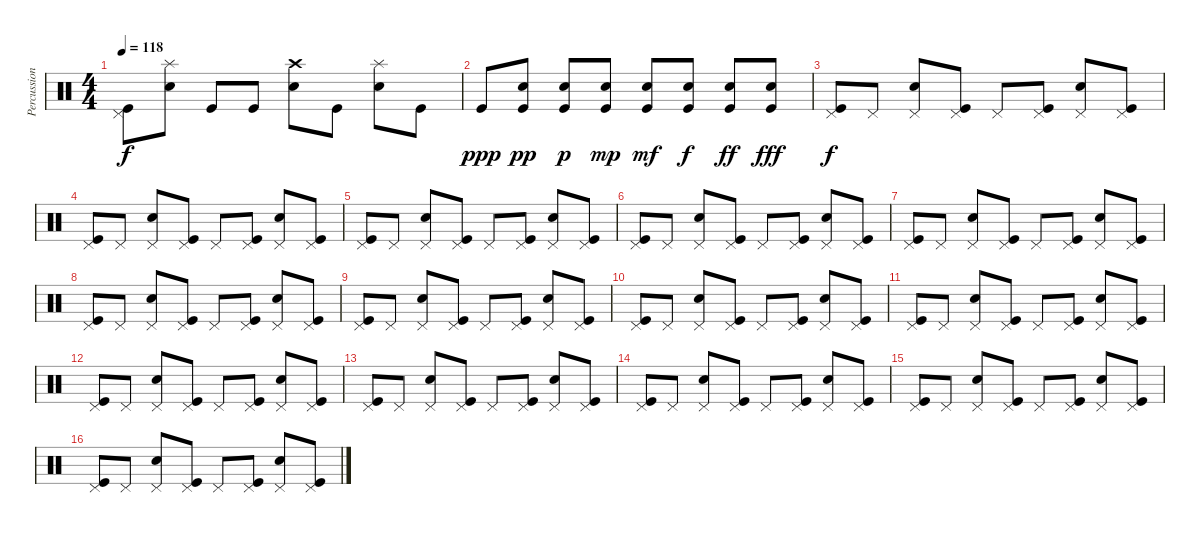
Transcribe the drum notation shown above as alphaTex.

\track ("Percussions" "Percussion") {instrument percussion}
\staff {score}
\articulation defaults
\ts (4 4)
\tempo 118
\clef neutral
\ks c
("Pedal Hi-Hat (hit)" "Kick (hit)").8{dy f} ("Splash (hit)" "Snare (hit) 2").8 "Kick (hit)".8 "Kick (hit)".8 ("Crash high (hit)" "Snare (hit) 2").8 "Kick (hit)".8 ("Splash (hit)" "Snare (hit) 2").8 "Kick (hit)".8 |
"Kick (hit)".8{dy ppp} ("Snare (hit) 2" "Kick (hit)").8{dy pp} ("Snare (hit) 2" "Kick (hit)").8{dy p} ("Snare (hit) 2" "Kick (hit)").8{dy mp} ("Snare (hit) 2" "Kick (hit)").8{dy mf} ("Snare (hit) 2" "Kick (hit)").8{dy f} ("Snare (hit) 2" "Kick (hit)").8{dy ff} ("Snare (hit) 2" "Kick (hit)").8{dy fff} |
("Pedal Hi-Hat (hit)" "Kick (hit)").8{dy f} "Pedal Hi-Hat (hit)".8 ("Pedal Hi-Hat (hit)" "Snare (hit) 2").8 ("Pedal Hi-Hat (hit)" "Kick (hit)").8 "Pedal Hi-Hat (hit)".8 ("Pedal Hi-Hat (hit)" "Kick (hit)").8 ("Pedal Hi-Hat (hit)" "Snare (hit) 2").8 ("Pedal Hi-Hat (hit)" "Kick (hit)").8 |
("Pedal Hi-Hat (hit)" "Kick (hit)").8 "Pedal Hi-Hat (hit)".8 ("Pedal Hi-Hat (hit)" "Snare (hit) 2").8 ("Pedal Hi-Hat (hit)" "Kick (hit)").8 "Pedal Hi-Hat (hit)".8 ("Pedal Hi-Hat (hit)" "Kick (hit)").8 ("Pedal Hi-Hat (hit)" "Snare (hit) 2").8 ("Pedal Hi-Hat (hit)" "Kick (hit)").8 |
("Pedal Hi-Hat (hit)" "Kick (hit)").8 "Pedal Hi-Hat (hit)".8 ("Pedal Hi-Hat (hit)" "Snare (hit) 2").8 ("Pedal Hi-Hat (hit)" "Kick (hit)").8 "Pedal Hi-Hat (hit)".8 ("Pedal Hi-Hat (hit)" "Kick (hit)").8 ("Pedal Hi-Hat (hit)" "Snare (hit) 2").8 ("Pedal Hi-Hat (hit)" "Kick (hit)").8 |
("Pedal Hi-Hat (hit)" "Kick (hit)").8 "Pedal Hi-Hat (hit)".8 ("Pedal Hi-Hat (hit)" "Snare (hit) 2").8 ("Pedal Hi-Hat (hit)" "Kick (hit)").8 "Pedal Hi-Hat (hit)".8 ("Pedal Hi-Hat (hit)" "Kick (hit)").8 ("Pedal Hi-Hat (hit)" "Snare (hit) 2").8 ("Pedal Hi-Hat (hit)" "Kick (hit)").8 |
("Pedal Hi-Hat (hit)" "Kick (hit)").8 "Pedal Hi-Hat (hit)".8 ("Pedal Hi-Hat (hit)" "Snare (hit) 2").8 ("Pedal Hi-Hat (hit)" "Kick (hit)").8 "Pedal Hi-Hat (hit)".8 ("Pedal Hi-Hat (hit)" "Kick (hit)").8 ("Pedal Hi-Hat (hit)" "Snare (hit) 2").8 ("Pedal Hi-Hat (hit)" "Kick (hit)").8 |
("Pedal Hi-Hat (hit)" "Kick (hit)").8 "Pedal Hi-Hat (hit)".8 ("Pedal Hi-Hat (hit)" "Snare (hit) 2").8 ("Pedal Hi-Hat (hit)" "Kick (hit)").8 "Pedal Hi-Hat (hit)".8 ("Pedal Hi-Hat (hit)" "Kick (hit)").8 ("Pedal Hi-Hat (hit)" "Snare (hit) 2").8 ("Pedal Hi-Hat (hit)" "Kick (hit)").8 |
("Pedal Hi-Hat (hit)" "Kick (hit)").8 "Pedal Hi-Hat (hit)".8 ("Pedal Hi-Hat (hit)" "Snare (hit) 2").8 ("Pedal Hi-Hat (hit)" "Kick (hit)").8 "Pedal Hi-Hat (hit)".8 ("Pedal Hi-Hat (hit)" "Kick (hit)").8 ("Pedal Hi-Hat (hit)" "Snare (hit) 2").8 ("Pedal Hi-Hat (hit)" "Kick (hit)").8 |
("Pedal Hi-Hat (hit)" "Kick (hit)").8 "Pedal Hi-Hat (hit)".8 ("Pedal Hi-Hat (hit)" "Snare (hit) 2").8 ("Pedal Hi-Hat (hit)" "Kick (hit)").8 "Pedal Hi-Hat (hit)".8 ("Pedal Hi-Hat (hit)" "Kick (hit)").8 ("Pedal Hi-Hat (hit)" "Snare (hit) 2").8 ("Pedal Hi-Hat (hit)" "Kick (hit)").8 |
("Pedal Hi-Hat (hit)" "Kick (hit)").8 "Pedal Hi-Hat (hit)".8 ("Pedal Hi-Hat (hit)" "Snare (hit) 2").8 ("Pedal Hi-Hat (hit)" "Kick (hit)").8 "Pedal Hi-Hat (hit)".8 ("Pedal Hi-Hat (hit)" "Kick (hit)").8 ("Pedal Hi-Hat (hit)" "Snare (hit) 2").8 ("Pedal Hi-Hat (hit)" "Kick (hit)").8 |
("Pedal Hi-Hat (hit)" "Kick (hit)").8 "Pedal Hi-Hat (hit)".8 ("Pedal Hi-Hat (hit)" "Snare (hit) 2").8 ("Pedal Hi-Hat (hit)" "Kick (hit)").8 "Pedal Hi-Hat (hit)".8 ("Pedal Hi-Hat (hit)" "Kick (hit)").8 ("Pedal Hi-Hat (hit)" "Snare (hit) 2").8 ("Pedal Hi-Hat (hit)" "Kick (hit)").8 |
("Pedal Hi-Hat (hit)" "Kick (hit)").8 "Pedal Hi-Hat (hit)".8 ("Pedal Hi-Hat (hit)" "Snare (hit) 2").8 ("Pedal Hi-Hat (hit)" "Kick (hit)").8 "Pedal Hi-Hat (hit)".8 ("Pedal Hi-Hat (hit)" "Kick (hit)").8 ("Pedal Hi-Hat (hit)" "Snare (hit) 2").8 ("Pedal Hi-Hat (hit)" "Kick (hit)").8 |
("Pedal Hi-Hat (hit)" "Kick (hit)").8 "Pedal Hi-Hat (hit)".8 ("Pedal Hi-Hat (hit)" "Snare (hit) 2").8 ("Pedal Hi-Hat (hit)" "Kick (hit)").8 "Pedal Hi-Hat (hit)".8 ("Pedal Hi-Hat (hit)" "Kick (hit)").8 ("Pedal Hi-Hat (hit)" "Snare (hit) 2").8 ("Pedal Hi-Hat (hit)" "Kick (hit)").8 |
("Pedal Hi-Hat (hit)" "Kick (hit)").8 "Pedal Hi-Hat (hit)".8 ("Pedal Hi-Hat (hit)" "Snare (hit) 2").8 ("Pedal Hi-Hat (hit)" "Kick (hit)").8 "Pedal Hi-Hat (hit)".8 ("Pedal Hi-Hat (hit)" "Kick (hit)").8 ("Pedal Hi-Hat (hit)" "Snare (hit) 2").8 ("Pedal Hi-Hat (hit)" "Kick (hit)").8 |
("Pedal Hi-Hat (hit)" "Kick (hit)").8 "Pedal Hi-Hat (hit)".8 ("Pedal Hi-Hat (hit)" "Snare (hit) 2").8 ("Pedal Hi-Hat (hit)" "Kick (hit)").8 "Pedal Hi-Hat (hit)".8 ("Pedal Hi-Hat (hit)" "Kick (hit)").8 ("Pedal Hi-Hat (hit)" "Snare (hit) 2").8 ("Pedal Hi-Hat (hit)" "Kick (hit)").8
